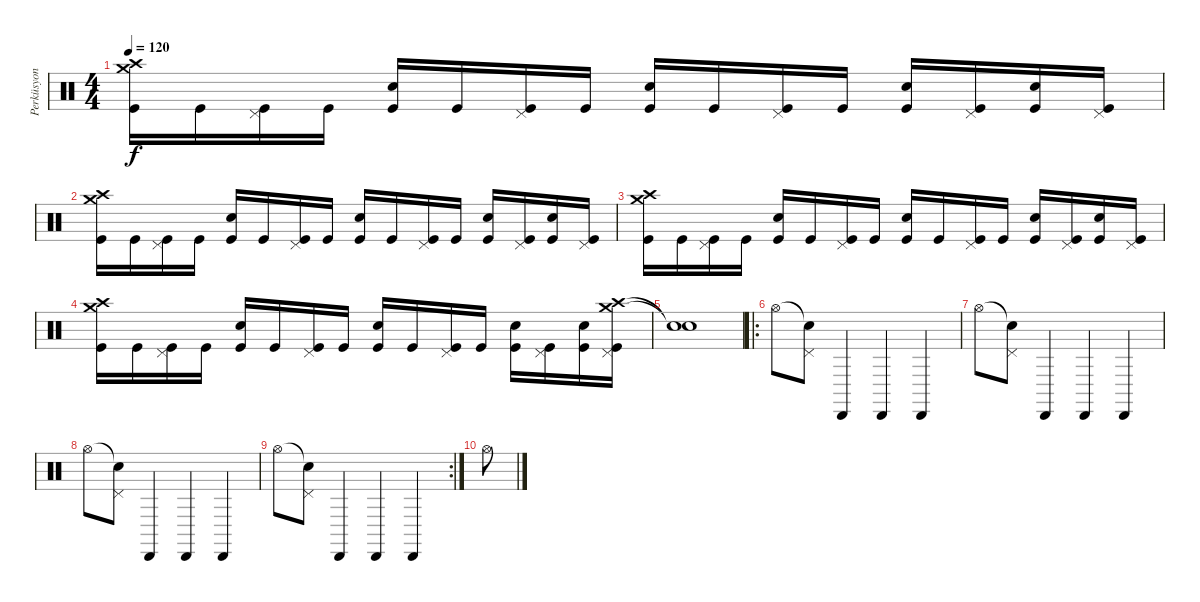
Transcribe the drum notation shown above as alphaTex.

\track ("Perküsyon" "Perküsyon") {instrument percussion}
\staff {score}
\articulation defaults
\ts (4 4)
\tempo 120
\clef neutral
\ks c
("Crash high (hit)" "Crash medium (hit)" "Kick (hit)").16{dy f} "Kick (hit)".16 ("Pedal Hi-Hat (hit)" "Kick (hit)").16 "Kick (hit)".16 ("Snare (hit) 2" "Kick (hit)").16 "Kick (hit)".16 ("Pedal Hi-Hat (hit)" "Kick (hit)").16 "Kick (hit)".16 ("Electric Snare (hit)" "Kick (hit)").16 "Kick (hit)".16 ("Pedal Hi-Hat (hit)" "Kick (hit)").16 "Kick (hit)".16 ("Snare (hit) 2" "Kick (hit)").16 ("Pedal Hi-Hat (hit)" "Kick (hit)").16 ("Electric Snare (hit)" "Kick (hit)").16 ("Pedal Hi-Hat (hit)" "Kick (hit)").16 |
("Crash high (hit)" "Crash medium (hit)" "Kick (hit)").16 "Kick (hit)".16 ("Pedal Hi-Hat (hit)" "Kick (hit)").16 "Kick (hit)".16 ("Snare (hit) 2" "Kick (hit)").16 "Kick (hit)".16 ("Pedal Hi-Hat (hit)" "Kick (hit)").16 "Kick (hit)".16 ("Electric Snare (hit)" "Kick (hit)").16 "Kick (hit)".16 ("Pedal Hi-Hat (hit)" "Kick (hit)").16 "Kick (hit)".16 ("Snare (hit) 2" "Kick (hit)").16 ("Pedal Hi-Hat (hit)" "Kick (hit)").16 ("Electric Snare (hit)" "Kick (hit)").16 ("Pedal Hi-Hat (hit)" "Kick (hit)").16 |
("Crash high (hit)" "Crash medium (hit)" "Kick (hit)").16 "Kick (hit)".16 ("Pedal Hi-Hat (hit)" "Kick (hit)").16 "Kick (hit)".16 ("Snare (hit) 2" "Kick (hit)").16 "Kick (hit)".16 ("Pedal Hi-Hat (hit)" "Kick (hit)").16 "Kick (hit)".16 ("Electric Snare (hit)" "Kick (hit)").16 "Kick (hit)".16 ("Pedal Hi-Hat (hit)" "Kick (hit)").16 "Kick (hit)".16 ("Snare (hit) 2" "Kick (hit)").16 ("Pedal Hi-Hat (hit)" "Kick (hit)").16 ("Electric Snare (hit)" "Kick (hit)").16 ("Pedal Hi-Hat (hit)" "Kick (hit)").16 |
("Crash high (hit)" "Crash medium (hit)" "Kick (hit)").16 "Kick (hit)".16 ("Pedal Hi-Hat (hit)" "Kick (hit)").16 "Kick (hit)".16 ("Snare (hit) 2" "Kick (hit)").16 "Kick (hit)".16 ("Pedal Hi-Hat (hit)" "Kick (hit)").16 "Kick (hit)".16 ("Electric Snare (hit)" "Kick (hit)").16 "Kick (hit)".16 ("Pedal Hi-Hat (hit)" "Kick (hit)").16 "Kick (hit)".16 ("Snare (hit) 2" "Kick (hit)").16 ("Pedal Hi-Hat (hit)" "Kick (hit)").16 ("Electric Snare (hit)" "Kick (hit)").16 ("Crash high (hit)" "Crash medium (hit)" "Pedal Hi-Hat (hit)" "Kick (hit)").16 |
("Snare (hit)"{t} "Snare (hit)"{t}).1 |
\ro "Hi-Hat (open)".8
("Snare (hit)"{t} "Pedal Hi-Hat (hit)").8 "Cabasa (hit)".4 "Cabasa (hit)".4 "Cabasa (hit)".4 |
"Hi-Hat (open)".8 ("Snare (hit)"{t} "Pedal Hi-Hat (hit)").8 "Cabasa (hit)".4 "Cabasa (hit)".4 "Cabasa (hit)".4 |
"Hi-Hat (open)".8 ("Snare (hit)"{t} "Pedal Hi-Hat (hit)").8 "Cabasa (hit)".4 "Cabasa (hit)".4 "Cabasa (hit)".4 |
\rc 2 "Hi-Hat (open)".8
("Snare (hit)"{t} "Pedal Hi-Hat (hit)").8 "Cabasa (hit)".4 "Cabasa (hit)".4 "Cabasa (hit)".4 |
"Hi-Hat (open)".8
